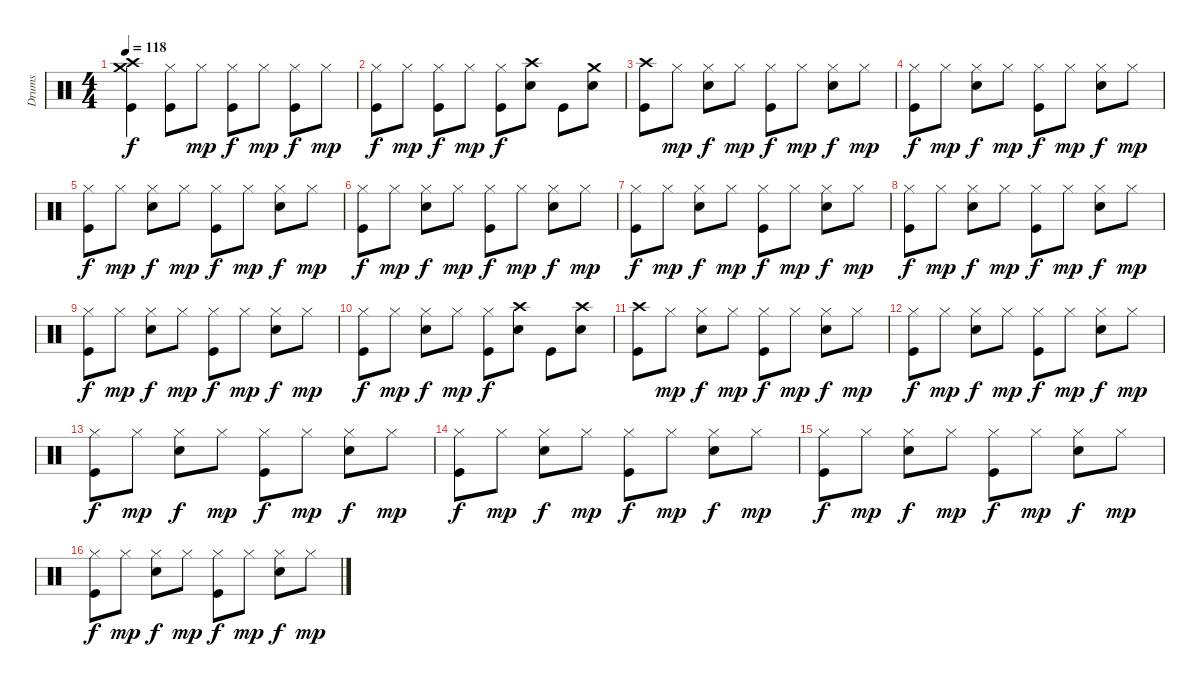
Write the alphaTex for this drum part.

\track ("Drums" "Drums") {instrument percussion}
\staff {score}
\articulation defaults
\ts (4 4)
\tempo 118
\clef neutral
\ks c
("Crash high (hit)" "Crash medium (hit)" "Kick (hit)").4{dy f} ("Hi-Hat (closed)" "Kick (hit)").8 "Hi-Hat (closed)".8{dy mp} ("Hi-Hat (closed)" "Kick (hit)").8{dy f} "Hi-Hat (closed)".8{dy mp} ("Hi-Hat (closed)" "Kick (hit)").8{dy f} "Hi-Hat (closed)".8{dy mp} |
("Hi-Hat (closed)" "Kick (hit)").8{dy f} "Hi-Hat (closed)".8{dy mp} ("Hi-Hat (closed)" "Kick (hit)").8{dy f} "Hi-Hat (closed)".8{dy mp} ("Hi-Hat (closed)" "Kick (hit)").8{dy f} ("Crash high (hit)" "Snare (hit) 2").8 "Kick (hit)".8 ("Crash medium (hit)" "Snare (hit) 2").8 |
("Crash high (hit)" "Kick (hit)").8 "Hi-Hat (closed)".8{dy mp} ("Hi-Hat (closed)" "Snare (hit) 2").8{dy f} "Hi-Hat (closed)".8{dy mp} ("Hi-Hat (closed)" "Kick (hit)").8{dy f} "Hi-Hat (closed)".8{dy mp} ("Hi-Hat (closed)" "Snare (hit) 2").8{dy f} "Hi-Hat (closed)".8{dy mp} |
("Hi-Hat (closed)" "Kick (hit)").8{dy f} "Hi-Hat (closed)".8{dy mp} ("Hi-Hat (closed)" "Snare (hit) 2").8{dy f} "Hi-Hat (closed)".8{dy mp} ("Hi-Hat (closed)" "Kick (hit)").8{dy f} "Hi-Hat (closed)".8{dy mp} ("Hi-Hat (closed)" "Snare (hit) 2").8{dy f} "Hi-Hat (closed)".8{dy mp} |
("Hi-Hat (closed)" "Kick (hit)").8{dy f} "Hi-Hat (closed)".8{dy mp} ("Hi-Hat (closed)" "Snare (hit) 2").8{dy f} "Hi-Hat (closed)".8{dy mp} ("Hi-Hat (closed)" "Kick (hit)").8{dy f} "Hi-Hat (closed)".8{dy mp} ("Hi-Hat (closed)" "Snare (hit) 2").8{dy f} "Hi-Hat (closed)".8{dy mp} |
("Hi-Hat (closed)" "Kick (hit)").8{dy f} "Hi-Hat (closed)".8{dy mp} ("Hi-Hat (closed)" "Snare (hit) 2").8{dy f} "Hi-Hat (closed)".8{dy mp} ("Hi-Hat (closed)" "Kick (hit)").8{dy f} "Hi-Hat (closed)".8{dy mp} ("Hi-Hat (closed)" "Snare (hit) 2").8{dy f} "Hi-Hat (closed)".8{dy mp} |
("Hi-Hat (closed)" "Kick (hit)").8{dy f} "Hi-Hat (closed)".8{dy mp} ("Hi-Hat (closed)" "Snare (hit) 2").8{dy f} "Hi-Hat (closed)".8{dy mp} ("Hi-Hat (closed)" "Kick (hit)").8{dy f} "Hi-Hat (closed)".8{dy mp} ("Hi-Hat (closed)" "Snare (hit) 2").8{dy f} "Hi-Hat (closed)".8{dy mp} |
("Hi-Hat (closed)" "Kick (hit)").8{dy f} "Hi-Hat (closed)".8{dy mp} ("Hi-Hat (closed)" "Snare (hit) 2").8{dy f} "Hi-Hat (closed)".8{dy mp} ("Hi-Hat (closed)" "Kick (hit)").8{dy f} "Hi-Hat (closed)".8{dy mp} ("Hi-Hat (closed)" "Snare (hit) 2").8{dy f} "Hi-Hat (closed)".8{dy mp} |
("Hi-Hat (closed)" "Kick (hit)").8{dy f} "Hi-Hat (closed)".8{dy mp} ("Hi-Hat (closed)" "Snare (hit) 2").8{dy f} "Hi-Hat (closed)".8{dy mp} ("Hi-Hat (closed)" "Kick (hit)").8{dy f} "Hi-Hat (closed)".8{dy mp} ("Hi-Hat (closed)" "Snare (hit) 2").8{dy f} "Hi-Hat (closed)".8{dy mp} |
("Hi-Hat (closed)" "Kick (hit)").8{dy f} "Hi-Hat (closed)".8{dy mp} ("Hi-Hat (closed)" "Snare (hit) 2").8{dy f} "Hi-Hat (closed)".8{dy mp} ("Hi-Hat (closed)" "Kick (hit)").8{dy f} ("Crash high (hit)" "Snare (hit) 2").8 "Kick (hit)".8 ("Crash high (hit)" "Snare (hit) 2").8 |
("Crash high (hit)" "Kick (hit)").8 "Hi-Hat (closed)".8{dy mp} ("Hi-Hat (closed)" "Snare (hit) 2").8{dy f} "Hi-Hat (closed)".8{dy mp} ("Hi-Hat (closed)" "Kick (hit)").8{dy f} "Hi-Hat (closed)".8{dy mp} ("Hi-Hat (closed)" "Snare (hit) 2").8{dy f} "Hi-Hat (closed)".8{dy mp} |
("Hi-Hat (closed)" "Kick (hit)").8{dy f} "Hi-Hat (closed)".8{dy mp} ("Hi-Hat (closed)" "Snare (hit) 2").8{dy f} "Hi-Hat (closed)".8{dy mp} ("Hi-Hat (closed)" "Kick (hit)").8{dy f} "Hi-Hat (closed)".8{dy mp} ("Hi-Hat (closed)" "Snare (hit) 2").8{dy f} "Hi-Hat (closed)".8{dy mp} |
("Hi-Hat (closed)" "Kick (hit)").8{dy f} "Hi-Hat (closed)".8{dy mp} ("Hi-Hat (closed)" "Snare (hit) 2").8{dy f} "Hi-Hat (closed)".8{dy mp} ("Hi-Hat (closed)" "Kick (hit)").8{dy f} "Hi-Hat (closed)".8{dy mp} ("Hi-Hat (closed)" "Snare (hit) 2").8{dy f} "Hi-Hat (closed)".8{dy mp} |
("Hi-Hat (closed)" "Kick (hit)").8{dy f} "Hi-Hat (closed)".8{dy mp} ("Hi-Hat (closed)" "Snare (hit) 2").8{dy f} "Hi-Hat (closed)".8{dy mp} ("Hi-Hat (closed)" "Kick (hit)").8{dy f} "Hi-Hat (closed)".8{dy mp} ("Hi-Hat (closed)" "Snare (hit) 2").8{dy f} "Hi-Hat (closed)".8{dy mp} |
("Hi-Hat (closed)" "Kick (hit)").8{dy f} "Hi-Hat (closed)".8{dy mp} ("Hi-Hat (closed)" "Snare (hit) 2").8{dy f} "Hi-Hat (closed)".8{dy mp} ("Hi-Hat (closed)" "Kick (hit)").8{dy f} "Hi-Hat (closed)".8{dy mp} ("Hi-Hat (closed)" "Snare (hit) 2").8{dy f} "Hi-Hat (closed)".8{dy mp} |
("Hi-Hat (closed)" "Kick (hit)").8{dy f} "Hi-Hat (closed)".8{dy mp} ("Hi-Hat (closed)" "Snare (hit) 2").8{dy f} "Hi-Hat (closed)".8{dy mp} ("Hi-Hat (closed)" "Kick (hit)").8{dy f} "Hi-Hat (closed)".8{dy mp} ("Hi-Hat (closed)" "Snare (hit) 2").8{dy f} "Hi-Hat (closed)".8{dy mp}
